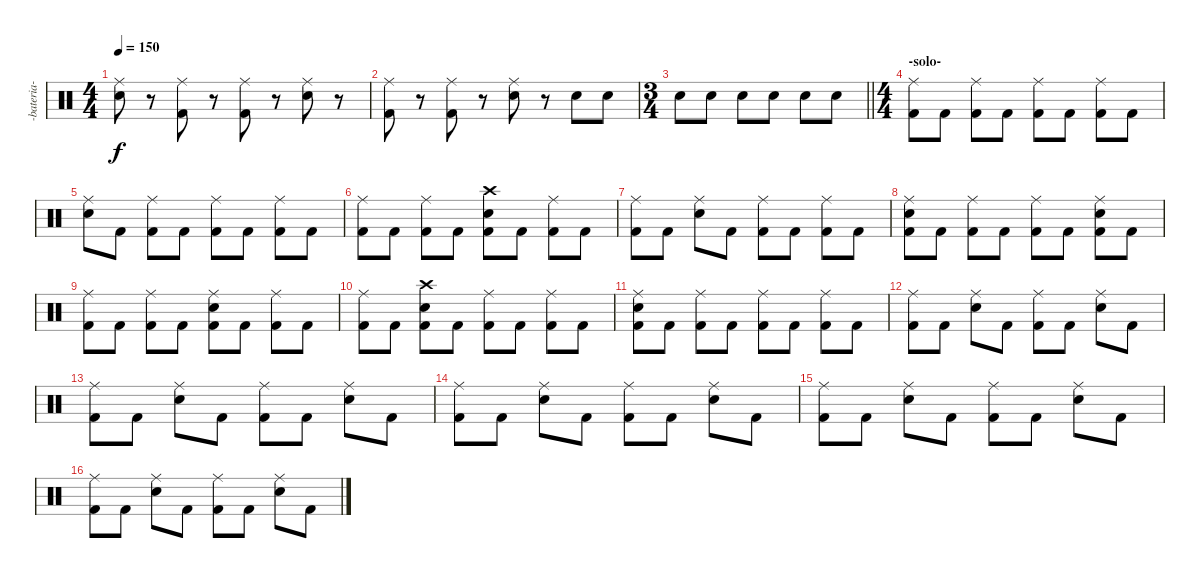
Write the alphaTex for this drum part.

\track ("-bateria-" "-bateria-") {instrument percussion}
\staff {score}
\articulation defaults
\ts (4 4)
\tempo 150
\clef neutral
\ks c
("Ride (middle)" "Electric Snare (hit)").8{dy f} r.8 ("Ride (middle)" "Kick (hit) 2").8 r.8 ("Ride (middle)" "Kick (hit) 2").8 r.8 ("Ride (middle)" "Electric Snare (hit)").8 r.8 |
("Ride (middle)" "Kick (hit) 2").8 r.8 ("Ride (middle)" "Kick (hit) 2").8 r.8 ("Ride (middle)" "Electric Snare (hit)").8 r.8 "Electric Snare (hit)".8 "Electric Snare (hit)".8 |
\ts (3 4)
\barLineRight lightlight "Electric Snare (hit)".8 "Electric Snare (hit)".8 "Electric Snare (hit)".8 "Electric Snare (hit)".8 "Electric Snare (hit)".8 "Electric Snare (hit)".8
|
\ts (4 4)
\section ("" "-solo-")
("Ride (middle)" "Kick (hit) 2").8 "Kick (hit) 2".8 ("Ride (middle)" "Kick (hit) 2").8 "Kick (hit) 2".8 ("Ride (middle)" "Kick (hit) 2").8 "Kick (hit) 2".8 ("Ride (middle)" "Kick (hit) 2").8 "Kick (hit) 2".8 |
("Ride (middle)" "Electric Snare (hit)").8 "Kick (hit) 2".8 ("Ride (middle)" "Kick (hit) 2").8 "Kick (hit) 2".8 ("Ride (middle)" "Kick (hit) 2").8 "Kick (hit) 2".8 ("Ride (middle)" "Kick (hit) 2").8 "Kick (hit) 2".8 |
("Ride (middle)" "Kick (hit) 2").8 "Kick (hit) 2".8 ("Ride (middle)" "Kick (hit) 2").8 "Kick (hit) 2".8 ("Crash high (hit)" "Electric Snare (hit)" "Kick (hit) 2").8 "Kick (hit) 2".8 ("Ride (middle)" "Kick (hit) 2").8 "Kick (hit) 2".8 |
("Ride (middle)" "Kick (hit) 2").8 "Kick (hit) 2".8 ("Ride (middle)" "Electric Snare (hit)").8 "Kick (hit) 2".8 ("Ride (middle)" "Kick (hit) 2").8 "Kick (hit) 2".8 ("Ride (middle)" "Kick (hit) 2").8 "Kick (hit) 2".8 |
("Ride (middle)" "Electric Snare (hit)" "Kick (hit) 2").8 "Kick (hit) 2".8 ("Ride (middle)" "Kick (hit) 2").8 "Kick (hit) 2".8 ("Ride (middle)" "Kick (hit) 2").8 "Kick (hit) 2".8 ("Ride (middle)" "Electric Snare (hit)" "Kick (hit) 2").8 "Kick (hit) 2".8 |
("Ride (middle)" "Kick (hit) 2").8 "Kick (hit) 2".8 ("Ride (middle)" "Kick (hit) 2").8 "Kick (hit) 2".8 ("Ride (middle)" "Electric Snare (hit)" "Kick (hit) 2").8 "Kick (hit) 2".8 ("Ride (middle)" "Kick (hit) 2").8 "Kick (hit) 2".8 |
("Ride (middle)" "Kick (hit) 2").8 "Kick (hit) 2".8 ("Crash high (hit)" "Electric Snare (hit)" "Kick (hit) 2").8 "Kick (hit) 2".8 ("Ride (middle)" "Kick (hit) 2").8 "Kick (hit) 2".8 ("Ride (middle)" "Kick (hit) 2").8 "Kick (hit) 2".8 |
("Ride (middle)" "Electric Snare (hit)" "Kick (hit) 2").8 "Kick (hit) 2".8 ("Ride (middle)" "Kick (hit) 2").8 "Kick (hit) 2".8 ("Ride (middle)" "Kick (hit) 2").8 "Kick (hit) 2".8 ("Ride (middle)" "Kick (hit) 2").8 "Kick (hit) 2".8 |
("Ride (middle)" "Kick (hit) 2").8 "Kick (hit) 2".8 ("Ride (middle)" "Electric Snare (hit)").8 "Kick (hit) 2".8 ("Ride (middle)" "Kick (hit) 2").8 "Kick (hit) 2".8 ("Ride (middle)" "Electric Snare (hit)").8 "Kick (hit) 2".8 |
("Ride (middle)" "Kick (hit) 2").8 "Kick (hit) 2".8 ("Ride (middle)" "Electric Snare (hit)").8 "Kick (hit) 2".8 ("Ride (middle)" "Kick (hit) 2").8 "Kick (hit) 2".8 ("Ride (middle)" "Electric Snare (hit)").8 "Kick (hit) 2".8 |
("Ride (middle)" "Kick (hit) 2").8 "Kick (hit) 2".8 ("Ride (middle)" "Electric Snare (hit)").8 "Kick (hit) 2".8 ("Ride (middle)" "Kick (hit) 2").8 "Kick (hit) 2".8 ("Ride (middle)" "Electric Snare (hit)").8 "Kick (hit) 2".8 |
("Ride (middle)" "Kick (hit) 2").8 "Kick (hit) 2".8 ("Ride (middle)" "Electric Snare (hit)").8 "Kick (hit) 2".8 ("Ride (middle)" "Kick (hit) 2").8 "Kick (hit) 2".8 ("Ride (middle)" "Electric Snare (hit)").8 "Kick (hit) 2".8 |
("Ride (middle)" "Kick (hit) 2").8 "Kick (hit) 2".8 ("Ride (middle)" "Electric Snare (hit)").8 "Kick (hit) 2".8 ("Ride (middle)" "Kick (hit) 2").8 "Kick (hit) 2".8 ("Ride (middle)" "Electric Snare (hit)").8 "Kick (hit) 2".8
